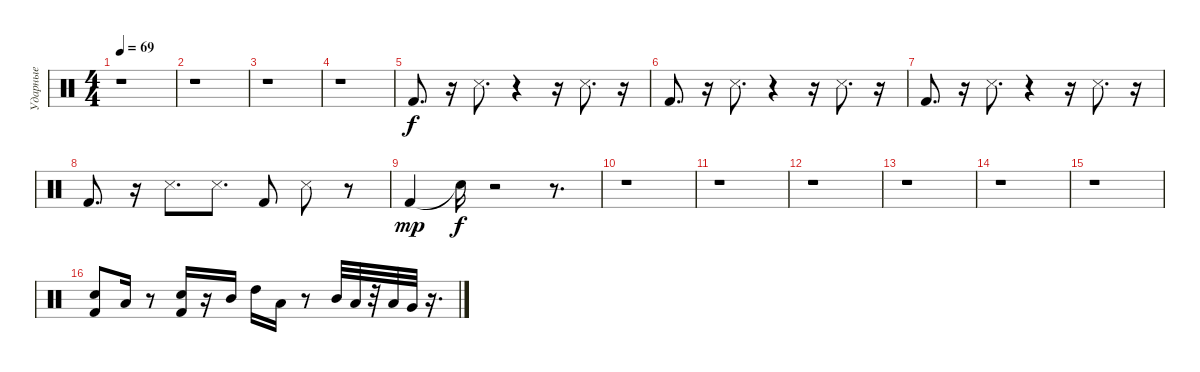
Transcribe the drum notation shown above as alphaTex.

\track ("Ударные" "Ударные") {instrument percussion}
\staff {score}
\articulation defaults
\ts (4 4)
\tempo 69
\clef neutral
\ks c
r.1{dy f} |
r.1 |
r.1 |
r.1 |
"Kick (hit) 2".8{d} r.16 "Snare (side stick) 3".8{d} r.4 r.16 "Snare (side stick) 3".8{d} r.16 |
"Kick (hit) 2".8{d} r.16 "Snare (side stick) 3".8{d} r.4 r.16 "Snare (side stick) 3".8{d} r.16 |
"Kick (hit) 2".8{d} r.16 "Snare (side stick) 3".8{d} r.4 r.16 "Snare (side stick) 3".8{d} r.16 |
"Kick (hit) 2".8{d} r.16 "Snare (side stick) 3".8{d} "Snare (side stick) 3".8{d} "Kick (hit) 2".8 "Snare (side stick) 3".8 r.8 |
"Kick (hit) 2".4{dy mp} "Snare (hit)"{t}.16{dy f} r.2 r.8{d} |
r.1 |
r.1 |
r.1 |
r.1 |
r.1 |
r.1 |
("Kick (hit) 2" "Snare (hit) 2").8 "Low Tom (hit)".16 r.8 ("Kick (hit) 2" "Snare (hit) 2").16 r.16 "Mid Tom (hit)".16 "High Tom (hit)".16 "Low Tom (hit)".16 r.8 "Mid Tom (hit)".32 "Low Tom (hit)".32 r.32 "Low Tom (hit)".32 "Very Low Tom (hit)".32 r.16{d}
